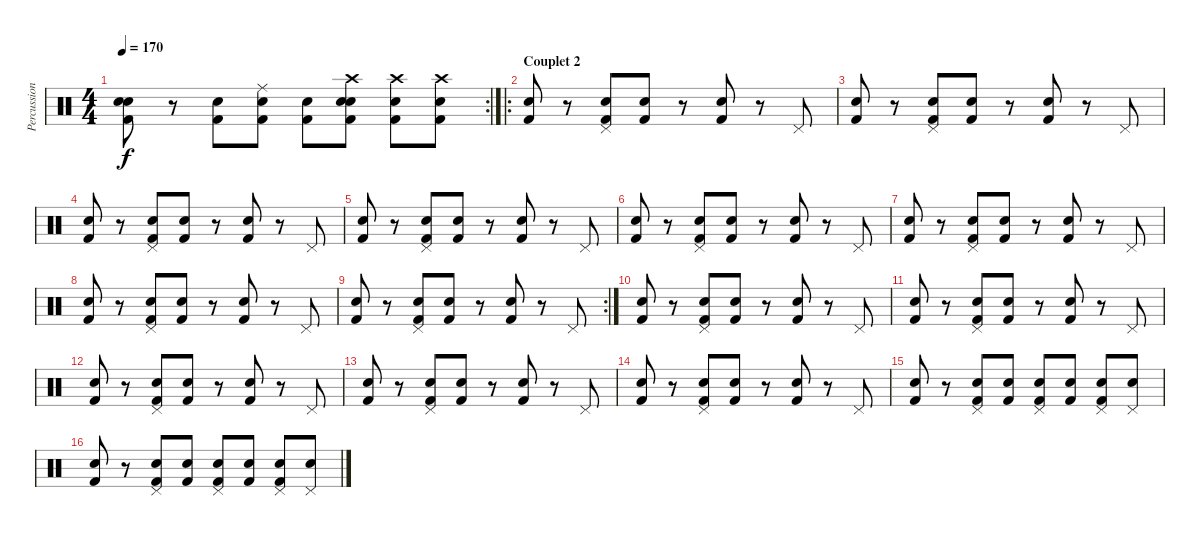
\track ("Percussions" "Percussion") {instrument percussion}
\staff {score}
\articulation defaults
\rc 2
\ts (4 4)
\tempo 170
\clef neutral
\ks c
("Electric Snare (hit)" "Kick (hit) 2" "Snare (hit) 2").8{dy f} r.8 ("Electric Snare (hit)" "Kick (hit) 2").8 ("Ride (middle)" "Snare (hit) 2" "Kick (hit) 2").8 ("Electric Snare (hit)" "Kick (hit) 2").8 ("Electric Snare (hit)" "Kick (hit) 2" "Snare (hit) 2" "Crash high (hit)").8 ("Electric Snare (hit)" "Kick (hit) 2" "Crash high (hit)").8 ("Snare (hit) 2" "Crash high (hit)" "Kick (hit) 2").8 |
\ro
\section ("" "Couplet 2")
("Snare (hit) 2" "Kick (hit) 2").8 r.8 ("Pedal Hi-Hat (hit)" "Kick (hit) 2" "Snare (hit) 2").8 ("Kick (hit) 2" "Snare (hit) 2").8 r.8 ("Kick (hit) 2" "Snare (hit) 2").8 r.8 "Pedal Hi-Hat (hit)".8 |
("Snare (hit) 2" "Kick (hit) 2").8 r.8 ("Pedal Hi-Hat (hit)" "Kick (hit) 2" "Snare (hit) 2").8 ("Kick (hit) 2" "Snare (hit) 2").8 r.8 ("Kick (hit) 2" "Snare (hit) 2").8 r.8 "Pedal Hi-Hat (hit)".8 |
("Snare (hit) 2" "Kick (hit) 2").8 r.8 ("Pedal Hi-Hat (hit)" "Kick (hit) 2" "Snare (hit) 2").8 ("Kick (hit) 2" "Snare (hit) 2").8 r.8 ("Kick (hit) 2" "Snare (hit) 2").8 r.8 "Pedal Hi-Hat (hit)".8 |
("Snare (hit) 2" "Kick (hit) 2").8 r.8 ("Pedal Hi-Hat (hit)" "Kick (hit) 2" "Snare (hit) 2").8 ("Kick (hit) 2" "Snare (hit) 2").8 r.8 ("Kick (hit) 2" "Snare (hit) 2").8 r.8 "Pedal Hi-Hat (hit)".8 |
("Snare (hit) 2" "Kick (hit) 2").8 r.8 ("Pedal Hi-Hat (hit)" "Kick (hit) 2" "Snare (hit) 2").8 ("Kick (hit) 2" "Snare (hit) 2").8 r.8 ("Kick (hit) 2" "Snare (hit) 2").8 r.8 "Pedal Hi-Hat (hit)".8 |
("Snare (hit) 2" "Kick (hit) 2").8 r.8 ("Pedal Hi-Hat (hit)" "Kick (hit) 2" "Snare (hit) 2").8 ("Kick (hit) 2" "Snare (hit) 2").8 r.8 ("Kick (hit) 2" "Snare (hit) 2").8 r.8 "Pedal Hi-Hat (hit)".8 |
("Snare (hit) 2" "Kick (hit) 2").8 r.8 ("Pedal Hi-Hat (hit)" "Kick (hit) 2" "Snare (hit) 2").8 ("Kick (hit) 2" "Snare (hit) 2").8 r.8 ("Kick (hit) 2" "Snare (hit) 2").8 r.8 "Pedal Hi-Hat (hit)".8 |
\rc 2
("Snare (hit) 2" "Kick (hit) 2").8 r.8 ("Pedal Hi-Hat (hit)" "Kick (hit) 2" "Snare (hit) 2").8 ("Kick (hit) 2" "Snare (hit) 2").8 r.8 ("Kick (hit) 2" "Snare (hit) 2").8 r.8 "Pedal Hi-Hat (hit)".8 |
("Snare (hit) 2" "Kick (hit) 2").8 r.8 ("Pedal Hi-Hat (hit)" "Kick (hit) 2" "Snare (hit) 2").8 ("Kick (hit) 2" "Snare (hit) 2").8 r.8 ("Kick (hit) 2" "Snare (hit) 2").8 r.8 "Pedal Hi-Hat (hit)".8 |
("Snare (hit) 2" "Kick (hit) 2").8 r.8 ("Pedal Hi-Hat (hit)" "Kick (hit) 2" "Snare (hit) 2").8 ("Kick (hit) 2" "Snare (hit) 2").8 r.8 ("Kick (hit) 2" "Snare (hit) 2").8 r.8 "Pedal Hi-Hat (hit)".8 |
("Snare (hit) 2" "Kick (hit) 2").8 r.8 ("Pedal Hi-Hat (hit)" "Kick (hit) 2" "Snare (hit) 2").8 ("Kick (hit) 2" "Snare (hit) 2").8 r.8 ("Kick (hit) 2" "Snare (hit) 2").8 r.8 "Pedal Hi-Hat (hit)".8 |
("Snare (hit) 2" "Kick (hit) 2").8 r.8 ("Pedal Hi-Hat (hit)" "Kick (hit) 2" "Snare (hit) 2").8 ("Kick (hit) 2" "Snare (hit) 2").8 r.8 ("Kick (hit) 2" "Snare (hit) 2").8 r.8 "Pedal Hi-Hat (hit)".8 |
("Snare (hit) 2" "Kick (hit) 2").8 r.8 ("Pedal Hi-Hat (hit)" "Kick (hit) 2" "Snare (hit) 2").8 ("Kick (hit) 2" "Snare (hit) 2").8 r.8 ("Kick (hit) 2" "Snare (hit) 2").8 r.8 "Pedal Hi-Hat (hit)".8 |
("Snare (hit) 2" "Kick (hit) 2").8 r.8 ("Pedal Hi-Hat (hit)" "Kick (hit) 2" "Snare (hit) 2").8 ("Kick (hit) 2" "Snare (hit) 2").8 ("Pedal Hi-Hat (hit)" "Kick (hit) 2" "Snare (hit) 2").8 ("Kick (hit) 2" "Snare (hit) 2").8 ("Pedal Hi-Hat (hit)" "Kick (hit) 2" "Snare (hit) 2").8 ("Pedal Hi-Hat (hit)" "Snare (hit) 2").8 |
("Snare (hit) 2" "Kick (hit) 2").8 r.8 ("Pedal Hi-Hat (hit)" "Kick (hit) 2" "Snare (hit) 2").8 ("Kick (hit) 2" "Snare (hit) 2").8 ("Pedal Hi-Hat (hit)" "Kick (hit) 2" "Snare (hit) 2").8 ("Kick (hit) 2" "Snare (hit) 2").8 ("Pedal Hi-Hat (hit)" "Kick (hit) 2" "Snare (hit) 2").8 ("Pedal Hi-Hat (hit)" "Snare (hit) 2").8
